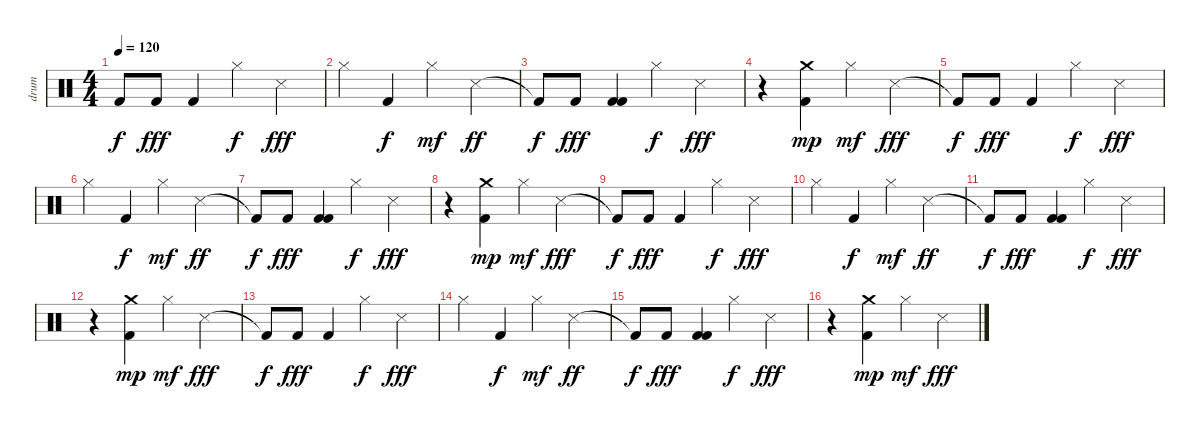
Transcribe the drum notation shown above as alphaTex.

\track ("drum" "drum") {instrument percussion}
\staff {score}
\articulation defaults
\ts (4 4)
\tempo 120
\clef neutral
\ks c "Kick (hit) 2"{t}.8{dy f} "Kick (hit) 2".8{dy fff} "Kick (hit) 2".4 "Hi-Hat (closed)".4{dy f} "Metronome (hit)".4{dy fff}
|
"Hi-Hat (closed)".4 "Kick (hit) 2".4{dy f} "Hi-Hat (closed)".4{dy mf} "Metronome (hit)".4{dy ff} |
"Kick (hit) 2"{t}.8{dy f} "Kick (hit) 2".8{dy fff} ("Kick (hit) 2" "Kick (hit) 2").4 "Hi-Hat (closed)".4{dy f} "Metronome (hit)".4{dy fff} |
r.4 ("Crash medium (hit)" "Kick (hit) 2").4{dy mp} "Hi-Hat (closed)".4{dy mf} "Metronome (hit)".4{dy fff} |
"Kick (hit) 2"{t}.8{dy f} "Kick (hit) 2".8{dy fff} "Kick (hit) 2".4 "Hi-Hat (closed)".4{dy f} "Metronome (hit)".4{dy fff} |
"Hi-Hat (closed)".4 "Kick (hit) 2".4{dy f} "Hi-Hat (closed)".4{dy mf} "Metronome (hit)".4{dy ff} |
"Kick (hit) 2"{t}.8{dy f} "Kick (hit) 2".8{dy fff} ("Kick (hit) 2" "Kick (hit) 2").4 "Hi-Hat (closed)".4{dy f} "Metronome (hit)".4{dy fff} |
r.4 ("Crash medium (hit)" "Kick (hit) 2").4{dy mp} "Hi-Hat (closed)".4{dy mf} "Metronome (hit)".4{dy fff} |
"Kick (hit) 2"{t}.8{dy f} "Kick (hit) 2".8{dy fff} "Kick (hit) 2".4 "Hi-Hat (closed)".4{dy f} "Metronome (hit)".4{dy fff} |
"Hi-Hat (closed)".4 "Kick (hit) 2".4{dy f} "Hi-Hat (closed)".4{dy mf} "Metronome (hit)".4{dy ff} |
"Kick (hit) 2"{t}.8{dy f} "Kick (hit) 2".8{dy fff} ("Kick (hit) 2" "Kick (hit) 2").4 "Hi-Hat (closed)".4{dy f} "Metronome (hit)".4{dy fff} |
r.4 ("Crash medium (hit)" "Kick (hit) 2").4{dy mp} "Hi-Hat (closed)".4{dy mf} "Metronome (hit)".4{dy fff} |
"Kick (hit) 2"{t}.8{dy f} "Kick (hit) 2".8{dy fff} "Kick (hit) 2".4 "Hi-Hat (closed)".4{dy f} "Metronome (hit)".4{dy fff} |
"Hi-Hat (closed)".4 "Kick (hit) 2".4{dy f} "Hi-Hat (closed)".4{dy mf} "Metronome (hit)".4{dy ff} |
"Kick (hit) 2"{t}.8{dy f} "Kick (hit) 2".8{dy fff} ("Kick (hit) 2" "Kick (hit) 2").4 "Hi-Hat (closed)".4{dy f} "Metronome (hit)".4{dy fff} |
r.4 ("Crash medium (hit)" "Kick (hit) 2").4{dy mp} "Hi-Hat (closed)".4{dy mf} "Metronome (hit)".4{dy fff}
